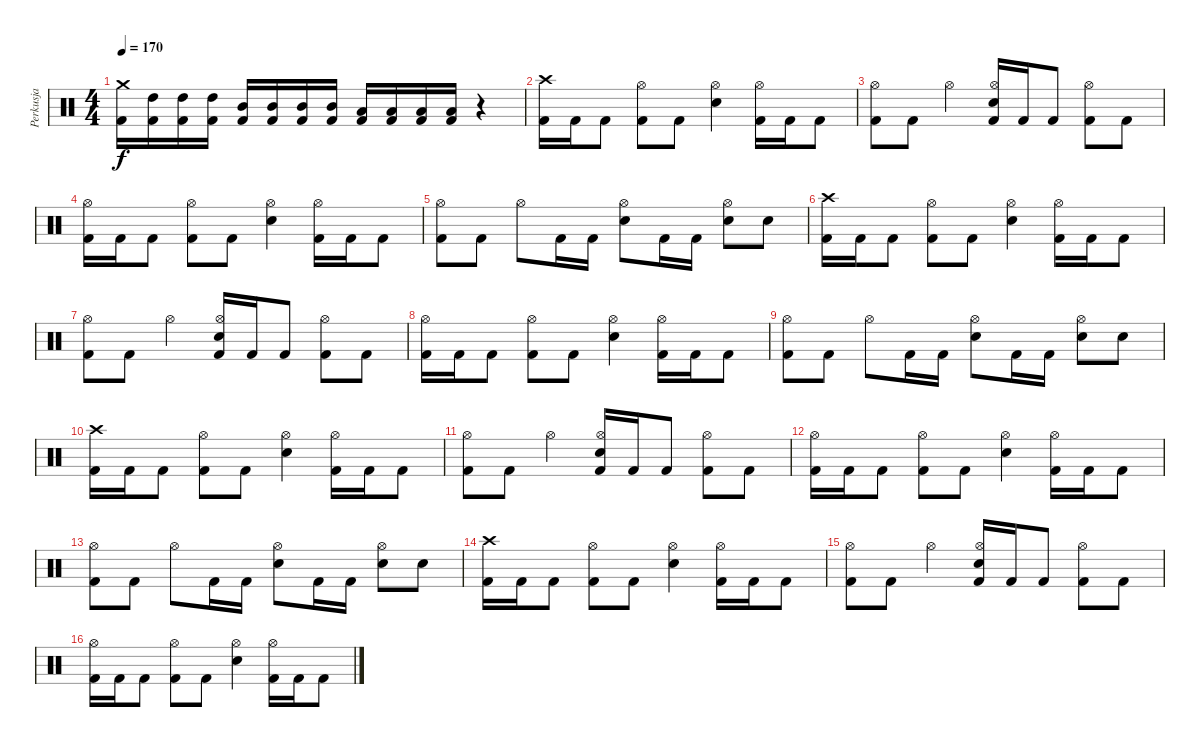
\track ("Perkusja" "Perkusja") {instrument percussion}
\staff {score}
\articulation defaults
\ts (4 4)
\tempo 170
\clef neutral
\ks c
("Crash medium (hit)" "Kick (hit) 2").16{dy f} ("High Tom (hit)" "Kick (hit) 2").16 ("High Tom (hit)" "Kick (hit) 2").16 ("High Tom (hit)" "Kick (hit) 2").16 ("Mid Tom (hit)" "Kick (hit) 2").16 ("Mid Tom (hit)" "Kick (hit) 2").16 ("Mid Tom (hit)" "Kick (hit) 2").16 ("Mid Tom (hit)" "Kick (hit) 2").16 ("Low Tom (hit)" "Kick (hit) 2").16 ("Low Tom (hit)" "Kick (hit) 2").16 ("Low Tom (hit)" "Kick (hit) 2").16 ("Low Tom (hit)" "Kick (hit) 2").16 r.4 |
("Crash high (hit)" "Kick (hit) 2").16 "Kick (hit) 2".16 "Kick (hit) 2".8 ("Hi-Hat (open)" "Kick (hit) 2").8 "Kick (hit) 2".8 ("Hi-Hat (open)" "Electric Snare (hit)").4 ("Hi-Hat (open)" "Kick (hit) 2").16 "Kick (hit) 2".16 "Kick (hit) 2".8 |
("Hi-Hat (open)" "Kick (hit) 2").8 "Kick (hit) 2".8 "Hi-Hat (open)".4 ("Hi-Hat (open)" "Electric Snare (hit)" "Kick (hit) 2").16 "Kick (hit) 2".16 "Kick (hit) 2".8 ("Hi-Hat (open)" "Kick (hit) 2").8 "Kick (hit) 2".8 |
("Hi-Hat (open)" "Kick (hit) 2").16 "Kick (hit) 2".16 "Kick (hit) 2".8 ("Hi-Hat (open)" "Kick (hit) 2").8 "Kick (hit) 2".8 ("Hi-Hat (open)" "Electric Snare (hit)").4 ("Hi-Hat (open)" "Kick (hit) 2").16 "Kick (hit) 2".16 "Kick (hit) 2".8 |
("Hi-Hat (open)" "Kick (hit) 2").8 "Kick (hit) 2".8 "Hi-Hat (open)".8 "Kick (hit) 2".16 "Kick (hit) 2".16 ("Hi-Hat (open)" "Electric Snare (hit)").8 "Kick (hit) 2".16 "Kick (hit) 2".16 ("Hi-Hat (open)" "Electric Snare (hit)").8 "Electric Snare (hit)".8 |
("Crash high (hit)" "Kick (hit) 2").16 "Kick (hit) 2".16 "Kick (hit) 2".8 ("Hi-Hat (open)" "Kick (hit) 2").8 "Kick (hit) 2".8 ("Hi-Hat (open)" "Electric Snare (hit)").4 ("Hi-Hat (open)" "Kick (hit) 2").16 "Kick (hit) 2".16 "Kick (hit) 2".8 |
("Hi-Hat (open)" "Kick (hit) 2").8 "Kick (hit) 2".8 "Hi-Hat (open)".4 ("Hi-Hat (open)" "Electric Snare (hit)" "Kick (hit) 2").16 "Kick (hit) 2".16 "Kick (hit) 2".8 ("Hi-Hat (open)" "Kick (hit) 2").8 "Kick (hit) 2".8 |
("Hi-Hat (open)" "Kick (hit) 2").16 "Kick (hit) 2".16 "Kick (hit) 2".8 ("Hi-Hat (open)" "Kick (hit) 2").8 "Kick (hit) 2".8 ("Hi-Hat (open)" "Electric Snare (hit)").4 ("Hi-Hat (open)" "Kick (hit) 2").16 "Kick (hit) 2".16 "Kick (hit) 2".8 |
("Hi-Hat (open)" "Kick (hit) 2").8 "Kick (hit) 2".8 "Hi-Hat (open)".8 "Kick (hit) 2".16 "Kick (hit) 2".16 ("Hi-Hat (open)" "Electric Snare (hit)").8 "Kick (hit) 2".16 "Kick (hit) 2".16 ("Hi-Hat (open)" "Electric Snare (hit)").8 "Electric Snare (hit)".8 |
("Crash high (hit)" "Kick (hit) 2").16 "Kick (hit) 2".16 "Kick (hit) 2".8 ("Hi-Hat (open)" "Kick (hit) 2").8 "Kick (hit) 2".8 ("Hi-Hat (open)" "Electric Snare (hit)").4 ("Hi-Hat (open)" "Kick (hit) 2").16 "Kick (hit) 2".16 "Kick (hit) 2".8 |
("Hi-Hat (open)" "Kick (hit) 2").8 "Kick (hit) 2".8 "Hi-Hat (open)".4 ("Hi-Hat (open)" "Electric Snare (hit)" "Kick (hit) 2").16 "Kick (hit) 2".16 "Kick (hit) 2".8 ("Hi-Hat (open)" "Kick (hit) 2").8 "Kick (hit) 2".8 |
("Hi-Hat (open)" "Kick (hit) 2").16 "Kick (hit) 2".16 "Kick (hit) 2".8 ("Hi-Hat (open)" "Kick (hit) 2").8 "Kick (hit) 2".8 ("Hi-Hat (open)" "Electric Snare (hit)").4 ("Hi-Hat (open)" "Kick (hit) 2").16 "Kick (hit) 2".16 "Kick (hit) 2".8 |
("Hi-Hat (open)" "Kick (hit) 2").8 "Kick (hit) 2".8 "Hi-Hat (open)".8 "Kick (hit) 2".16 "Kick (hit) 2".16 ("Hi-Hat (open)" "Electric Snare (hit)").8 "Kick (hit) 2".16 "Kick (hit) 2".16 ("Hi-Hat (open)" "Electric Snare (hit)").8 "Electric Snare (hit)".8 |
("Crash high (hit)" "Kick (hit) 2").16 "Kick (hit) 2".16 "Kick (hit) 2".8 ("Hi-Hat (open)" "Kick (hit) 2").8 "Kick (hit) 2".8 ("Hi-Hat (open)" "Electric Snare (hit)").4 ("Hi-Hat (open)" "Kick (hit) 2").16 "Kick (hit) 2".16 "Kick (hit) 2".8 |
("Hi-Hat (open)" "Kick (hit) 2").8 "Kick (hit) 2".8 "Hi-Hat (open)".4 ("Hi-Hat (open)" "Electric Snare (hit)" "Kick (hit) 2").16 "Kick (hit) 2".16 "Kick (hit) 2".8 ("Hi-Hat (open)" "Kick (hit) 2").8 "Kick (hit) 2".8 |
("Hi-Hat (open)" "Kick (hit) 2").16 "Kick (hit) 2".16 "Kick (hit) 2".8 ("Hi-Hat (open)" "Kick (hit) 2").8 "Kick (hit) 2".8 ("Hi-Hat (open)" "Electric Snare (hit)").4 ("Hi-Hat (open)" "Kick (hit) 2").16 "Kick (hit) 2".16 "Kick (hit) 2".8
